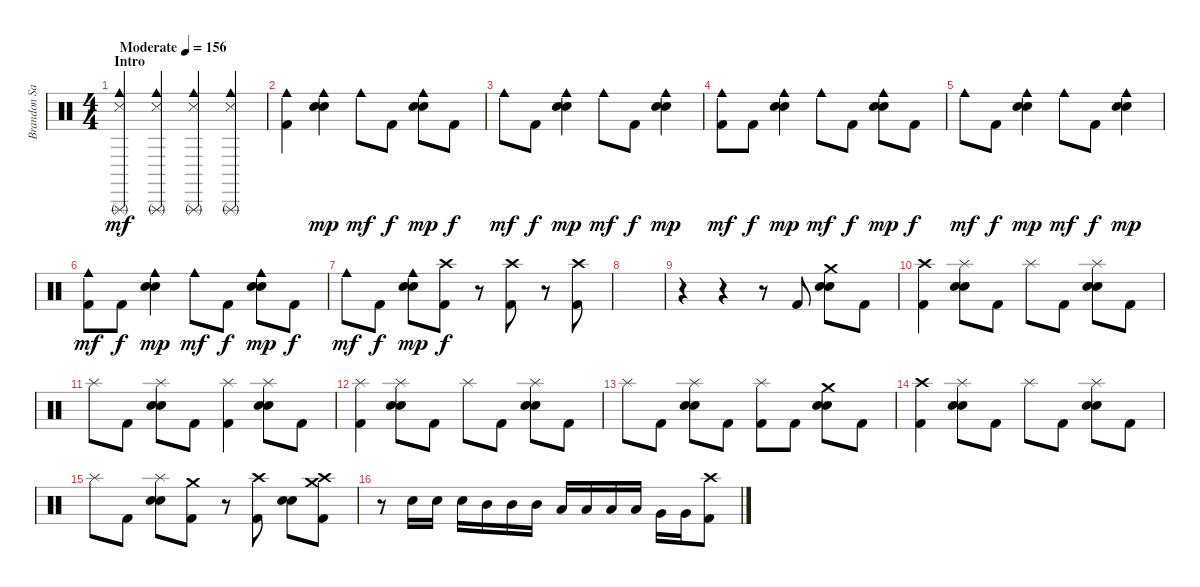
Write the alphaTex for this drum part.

\track ("Brandon Saller" "Brandon Sa") {instrument percussion}
\staff {score}
\articulation defaults
\ts (4 4)
\section ("" "Intro")
\tempo (156 "Moderate")
\clef neutral
\ks c
("Cowbell medium (hit)" "Snare (side stick) 3" "Triangle (rnute)").4{dy mf} ("Cowbell medium (hit)" "Snare (side stick) 3" "Triangle (rnute)").4 ("Cowbell medium (hit)" "Snare (side stick) 3" "Triangle (rnute)").4 ("Cowbell medium (hit)" "Snare (side stick) 3" "Triangle (rnute)").4 |
("Cowbell medium (hit)" "Kick (hit) 2").4 ("Cowbell medium (hit)" "Snare (hit) 2" "Electric Snare (hit)").4{dy mp} "Cowbell medium (hit)".8{dy mf} "Kick (hit) 2".8{dy f} ("Cowbell medium (hit)" "Snare (hit) 2" "Electric Snare (hit)").8{dy mp} "Kick (hit) 2".8{dy f} |
"Cowbell medium (hit)".8{dy mf} "Kick (hit) 2".8{dy f} ("Cowbell medium (hit)" "Snare (hit) 2" "Electric Snare (hit)").4{dy mp} "Cowbell medium (hit)".8{dy mf} "Kick (hit) 2".8{dy f} ("Cowbell medium (hit)" "Snare (hit) 2" "Electric Snare (hit)").4{dy mp} |
("Cowbell medium (hit)" "Kick (hit) 2").8{dy mf} "Kick (hit) 2".8{dy f} ("Cowbell medium (hit)" "Snare (hit) 2" "Electric Snare (hit)").4{dy mp} "Cowbell medium (hit)".8{dy mf} "Kick (hit) 2".8{dy f} ("Cowbell medium (hit)" "Snare (hit) 2" "Electric Snare (hit)").8{dy mp} "Kick (hit) 2".8{dy f} |
"Cowbell medium (hit)".8{dy mf} "Kick (hit) 2".8{dy f} ("Cowbell medium (hit)" "Snare (hit) 2" "Electric Snare (hit)").4{dy mp} "Cowbell medium (hit)".8{dy mf} "Kick (hit) 2".8{dy f} ("Cowbell medium (hit)" "Snare (hit) 2" "Electric Snare (hit)").4{dy mp} |
("Cowbell medium (hit)" "Kick (hit) 2").8{dy mf} "Kick (hit) 2".8{dy f} ("Cowbell medium (hit)" "Snare (hit) 2" "Electric Snare (hit)").4{dy mp} "Cowbell medium (hit)".8{dy mf} "Kick (hit) 2".8{dy f} ("Cowbell medium (hit)" "Snare (hit) 2" "Electric Snare (hit)").8{dy mp} "Kick (hit) 2".8{dy f} |
"Cowbell medium (hit)".8{dy mf} "Kick (hit) 2".8{dy f} ("Cowbell medium (hit)" "Snare (hit) 2" "Electric Snare (hit)").8{dy mp} ("Crash high (hit)" "Kick (hit) 2").8{dy f} r.8{volume 2} ("Crash high (hit)" "Kick (hit) 2").8{volume 13} r.8{volume 3} ("Crash high (hit)" "Kick (hit) 2").8{volume 13} |
|
r.4 r.4 r.8 "Kick (hit) 2".8{volume 13} ("Crash medium (hit)" "Snare (hit) 2" "Electric Snare (hit)").8 "Kick (hit) 2".8 |
("Crash high (hit)" "Kick (hit) 2").4 ("Splash (hit)" "Snare (hit) 2" "Electric Snare (hit)").8 "Kick (hit) 2".8 "Splash (hit)".8 "Kick (hit) 2".8 ("Splash (hit)" "Snare (hit) 2" "Electric Snare (hit)").8 "Kick (hit) 2".8 |
"Splash (hit)".8 "Kick (hit) 2".8 ("Splash (hit)" "Snare (hit) 2" "Electric Snare (hit)").8 "Kick (hit) 2".8 ("Splash (hit)" "Kick (hit) 2").4 ("Splash (hit)" "Snare (hit) 2" "Electric Snare (hit)").8 "Kick (hit) 2".8 |
("Splash (hit)" "Kick (hit) 2").4 ("Splash (hit)" "Snare (hit) 2" "Electric Snare (hit)").8 "Kick (hit) 2".8 "Splash (hit)".8 "Kick (hit) 2".8 ("Splash (hit)" "Snare (hit) 2" "Electric Snare (hit)").8 "Kick (hit) 2".8 |
"Splash (hit)".8 "Kick (hit) 2".8 ("Splash (hit)" "Snare (hit) 2" "Electric Snare (hit)").8 "Kick (hit) 2".8 ("Splash (hit)" "Kick (hit) 2").8 "Kick (hit) 2".8 ("Crash medium (hit)" "Snare (hit) 2" "Electric Snare (hit)").8 "Kick (hit) 2".8 |
("Crash high (hit)" "Kick (hit) 2").4 ("Splash (hit)" "Snare (hit) 2" "Electric Snare (hit)").8 "Kick (hit) 2".8 "Splash (hit)".8 "Kick (hit) 2".8 ("Splash (hit)" "Snare (hit) 2" "Electric Snare (hit)").8 "Kick (hit) 2".8 |
"Splash (hit)".8 "Kick (hit) 2".8 ("Splash (hit)" "Snare (hit) 2" "Electric Snare (hit)").8 ("Crash medium (hit)" "Kick (hit) 2").8 r.8 ("Crash high (hit)" "Kick (hit) 2").8 ("Snare (hit) 2" "Electric Snare (hit)").8 ("Crash high (hit)" "Crash medium (hit)" "Kick (hit) 2").8 |
r.8 "Electric Snare (hit)".16 "Electric Snare (hit)".16 "Electric Snare (hit)".16 "Mid Tom (hit)".16 "Mid Tom (hit)".16 "Mid Tom (hit)".16 "Low Tom (hit)".16 "Low Tom (hit)".16 "Low Tom (hit)".16 "Low Tom (hit)".16 "Very Low Tom (hit)".16 "Very Low Tom (hit)".16 ("Crash high (hit)" "Kick (hit) 2").8
